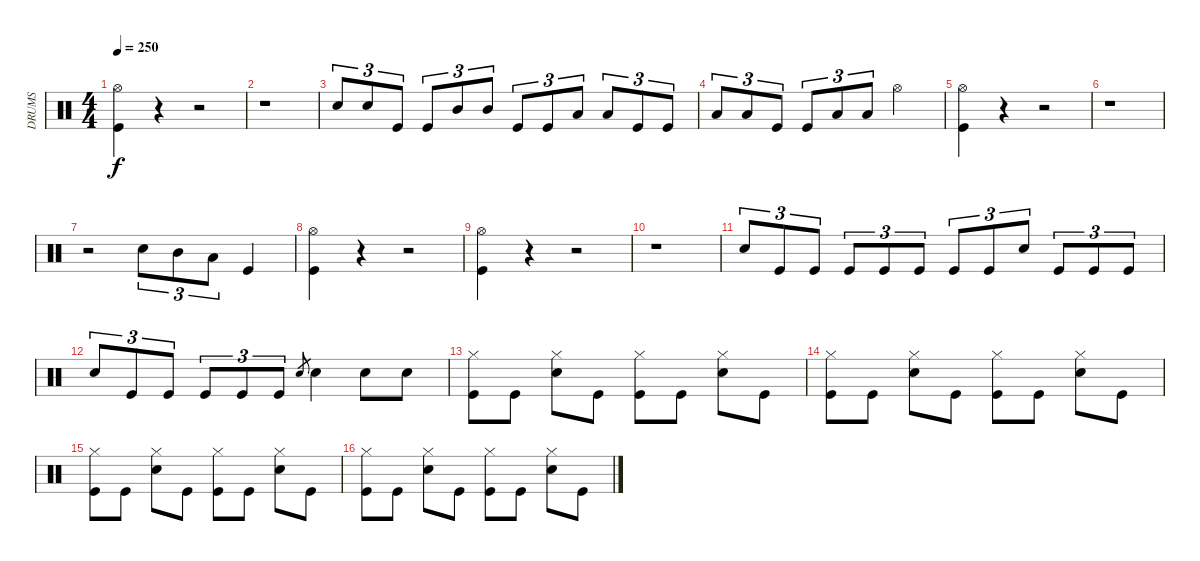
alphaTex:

\track ("DRUMS" "DRUMS") {instrument percussion}
\staff {score}
\articulation defaults
\ts (4 4)
\tempo 250
\clef neutral
\ks aminor
("Hi-Hat (open)" "Kick (hit)").4{dy f} r.4 r.2 |
r.1 |
"Snare (hit) 2".8{tu (3 2)} "Snare (hit) 2".8{tu (3 2)} "Kick (hit)".8{tu (3 2)} "Kick (hit)".8{tu (3 2)} "Mid Tom (hit)".8{tu (3 2)} "Mid Tom (hit)".8{tu (3 2)} "Kick (hit)".8{tu (3 2)} "Kick (hit)".8{tu (3 2)} "Low Tom (hit)".8{tu (3 2)} "Low Tom (hit)".8{tu (3 2)} "Kick (hit)".8{tu (3 2)} "Kick (hit)".8{tu (3 2)} |
"Low Tom (hit)".8{tu (3 2)} "Low Tom (hit)".8{tu (3 2)} "Kick (hit)".8{tu (3 2)} "Kick (hit)".8{tu (3 2)} "Low Tom (hit)".8{tu (3 2)} "Low Tom (hit)".8{tu (3 2)} "Hi-Hat (open)".2 |
("Hi-Hat (open)" "Kick (hit)").4 r.4 r.2 |
r.1 |
r.2 "Snare (hit) 2".8{tu (3 2)} "Mid Tom (hit)".8{tu (3 2)} "Low Tom (hit)".8{tu (3 2)} "Kick (hit)".4 |
("Hi-Hat (open)" "Kick (hit)").4 r.4 r.2 |
("Hi-Hat (open)" "Kick (hit)").4 r.4 r.2 |
r.1 |
"Snare (hit) 2".8{tu (3 2)} "Kick (hit)".8{tu (3 2)} "Kick (hit)".8{tu (3 2)} "Kick (hit)".8{tu (3 2)} "Kick (hit)".8{tu (3 2)} "Kick (hit)".8{tu (3 2)} "Kick (hit)".8{tu (3 2)} "Kick (hit)".8{tu (3 2)} "Snare (hit) 2".8{tu (3 2)} "Kick (hit)".8{tu (3 2)} "Kick (hit)".8{tu (3 2)} "Kick (hit)".8{tu (3 2)} |
"Snare (hit) 2".8{tu (3 2)} "Kick (hit)".8{tu (3 2)} "Kick (hit)".8{tu (3 2)} "Kick (hit)".8{tu (3 2)} "Kick (hit)".8{tu (3 2)} "Kick (hit)".8{tu (3 2)} "Snare (hit) 2".8{gr} "Snare (hit) 2".4 "Snare (hit) 2".8 "Snare (hit) 2".8 |
("Hi-Hat (closed)" "Kick (hit)").8 "Kick (hit)".8 ("Hi-Hat (closed)" "Snare (hit) 2").8 "Kick (hit)".8 ("Hi-Hat (closed)" "Kick (hit)").8 "Kick (hit)".8 ("Hi-Hat (closed)" "Snare (hit) 2").8 "Kick (hit)".8 |
("Hi-Hat (closed)" "Kick (hit)").8 "Kick (hit)".8 ("Hi-Hat (closed)" "Snare (hit) 2").8 "Kick (hit)".8 ("Hi-Hat (closed)" "Kick (hit)").8 "Kick (hit)".8 ("Hi-Hat (closed)" "Snare (hit) 2").8 "Kick (hit)".8 |
("Hi-Hat (closed)" "Kick (hit)").8 "Kick (hit)".8 ("Hi-Hat (closed)" "Snare (hit) 2").8 "Kick (hit)".8 ("Hi-Hat (closed)" "Kick (hit)").8 "Kick (hit)".8 ("Hi-Hat (closed)" "Snare (hit) 2").8 "Kick (hit)".8 |
("Hi-Hat (closed)" "Kick (hit)").8 "Kick (hit)".8 ("Hi-Hat (closed)" "Snare (hit) 2").8 "Kick (hit)".8 ("Hi-Hat (closed)" "Kick (hit)").8 "Kick (hit)".8 ("Hi-Hat (closed)" "Snare (hit) 2").8 "Kick (hit)".8
